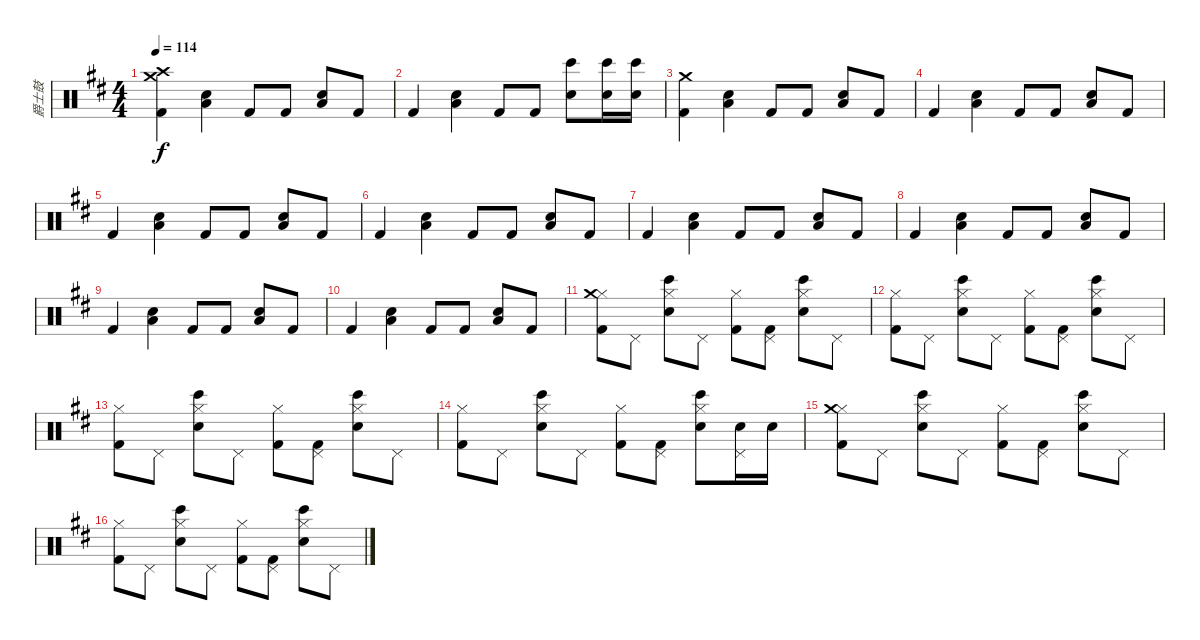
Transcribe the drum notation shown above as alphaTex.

\track ("爵士鼓" "爵士鼓") {instrument percussion}
\staff {score}
\articulation defaults
\ts (4 4)
\tempo 114
\clef neutral
\ks d
("Kick (hit) 2" "Crash medium (hit)" "Crash high (hit)").4{dy f} ("Low Tom (hit)" "Snare (hit) 2").4 "Kick (hit) 2".8 "Kick (hit) 2".8 ("Low Tom (hit)" "Snare (hit) 2").8 "Kick (hit) 2".8 |
"Kick (hit) 2".4 ("Low Tom (hit)" "Snare (hit) 2").4 "Kick (hit) 2".8 "Kick (hit) 2".8 ("Bongo High (hit)" "Snare (hit) 2").8 ("Bongo High (hit)" "Snare (hit) 2").16 ("Bongo High (hit)" "Snare (hit) 2").16 |
("Kick (hit) 2" "Crash medium (hit)").4 ("Low Tom (hit)" "Snare (hit) 2").4 "Kick (hit) 2".8 "Kick (hit) 2".8 ("Low Tom (hit)" "Snare (hit) 2").8 "Kick (hit) 2".8 |
"Kick (hit) 2".4 ("Low Tom (hit)" "Snare (hit) 2").4 "Kick (hit) 2".8 "Kick (hit) 2".8 ("Low Tom (hit)" "Snare (hit) 2").8 "Kick (hit) 2".8 |
"Kick (hit) 2".4 ("Low Tom (hit)" "Snare (hit) 2").4 "Kick (hit) 2".8 "Kick (hit) 2".8 ("Low Tom (hit)" "Snare (hit) 2").8 "Kick (hit) 2".8 |
"Kick (hit) 2".4 ("Low Tom (hit)" "Snare (hit) 2").4 "Kick (hit) 2".8 "Kick (hit) 2".8 ("Low Tom (hit)" "Snare (hit) 2").8 "Kick (hit) 2".8 |
"Kick (hit) 2".4 ("Low Tom (hit)" "Snare (hit) 2").4 "Kick (hit) 2".8 "Kick (hit) 2".8 ("Low Tom (hit)" "Snare (hit) 2").8 "Kick (hit) 2".8 |
"Kick (hit) 2".4 ("Low Tom (hit)" "Snare (hit) 2").4 "Kick (hit) 2".8 "Kick (hit) 2".8 ("Low Tom (hit)" "Snare (hit) 2").8 "Kick (hit) 2".8 |
"Kick (hit) 2".4 ("Low Tom (hit)" "Snare (hit) 2").4 "Kick (hit) 2".8 "Kick (hit) 2".8 ("Low Tom (hit)" "Snare (hit) 2").8 "Kick (hit) 2".8 |
"Kick (hit) 2".4 ("Low Tom (hit)" "Snare (hit) 2").4 "Kick (hit) 2".8 "Kick (hit) 2".8 ("Low Tom (hit)" "Snare (hit) 2").8 "Kick (hit) 2".8 |
("Hi-Hat (closed)" "Kick (hit) 2" "Crash medium (hit)").8 "Pedal Hi-Hat (hit)".8 ("Hi-Hat (closed)" "Snare (hit) 2" "Bongo High (hit)").8 "Pedal Hi-Hat (hit)".8 ("Hi-Hat (closed)" "Kick (hit) 2").8 ("Pedal Hi-Hat (hit)" "Kick (hit) 2").8 ("Hi-Hat (closed)" "Snare (hit) 2" "Bongo High (hit)").8 "Pedal Hi-Hat (hit)".8 |
("Hi-Hat (closed)" "Kick (hit) 2").8 "Pedal Hi-Hat (hit)".8 ("Hi-Hat (closed)" "Snare (hit) 2" "Bongo High (hit)").8 "Pedal Hi-Hat (hit)".8 ("Hi-Hat (closed)" "Kick (hit) 2").8 ("Pedal Hi-Hat (hit)" "Kick (hit) 2").8 ("Hi-Hat (closed)" "Snare (hit) 2" "Bongo High (hit)").8 "Pedal Hi-Hat (hit)".8 |
("Hi-Hat (closed)" "Kick (hit) 2").8 "Pedal Hi-Hat (hit)".8 ("Hi-Hat (closed)" "Snare (hit) 2" "Bongo High (hit)").8 "Pedal Hi-Hat (hit)".8 ("Hi-Hat (closed)" "Kick (hit) 2").8 ("Pedal Hi-Hat (hit)" "Kick (hit) 2").8 ("Hi-Hat (closed)" "Snare (hit) 2" "Bongo High (hit)").8 "Pedal Hi-Hat (hit)".8 |
("Hi-Hat (closed)" "Kick (hit) 2").8 "Pedal Hi-Hat (hit)".8 ("Hi-Hat (closed)" "Snare (hit) 2" "Bongo High (hit)").8 "Pedal Hi-Hat (hit)".8 ("Hi-Hat (closed)" "Kick (hit) 2").8 ("Pedal Hi-Hat (hit)" "Kick (hit) 2").8 ("Hi-Hat (closed)" "Snare (hit) 2" "Bongo High (hit)").8 ("Pedal Hi-Hat (hit)" "Snare (hit) 2").16 "Snare (hit) 2".16 |
("Hi-Hat (closed)" "Kick (hit) 2" "Crash medium (hit)").8 "Pedal Hi-Hat (hit)".8 ("Hi-Hat (closed)" "Snare (hit) 2" "Bongo High (hit)").8 "Pedal Hi-Hat (hit)".8 ("Hi-Hat (closed)" "Kick (hit) 2").8 ("Pedal Hi-Hat (hit)" "Kick (hit) 2").8 ("Hi-Hat (closed)" "Snare (hit) 2" "Bongo High (hit)").8 "Pedal Hi-Hat (hit)".8 |
("Hi-Hat (closed)" "Kick (hit) 2").8 "Pedal Hi-Hat (hit)".8 ("Hi-Hat (closed)" "Snare (hit) 2" "Bongo High (hit)").8 "Pedal Hi-Hat (hit)".8 ("Hi-Hat (closed)" "Kick (hit) 2").8 ("Pedal Hi-Hat (hit)" "Kick (hit) 2").8 ("Hi-Hat (closed)" "Snare (hit) 2" "Bongo High (hit)").8 "Pedal Hi-Hat (hit)".8
